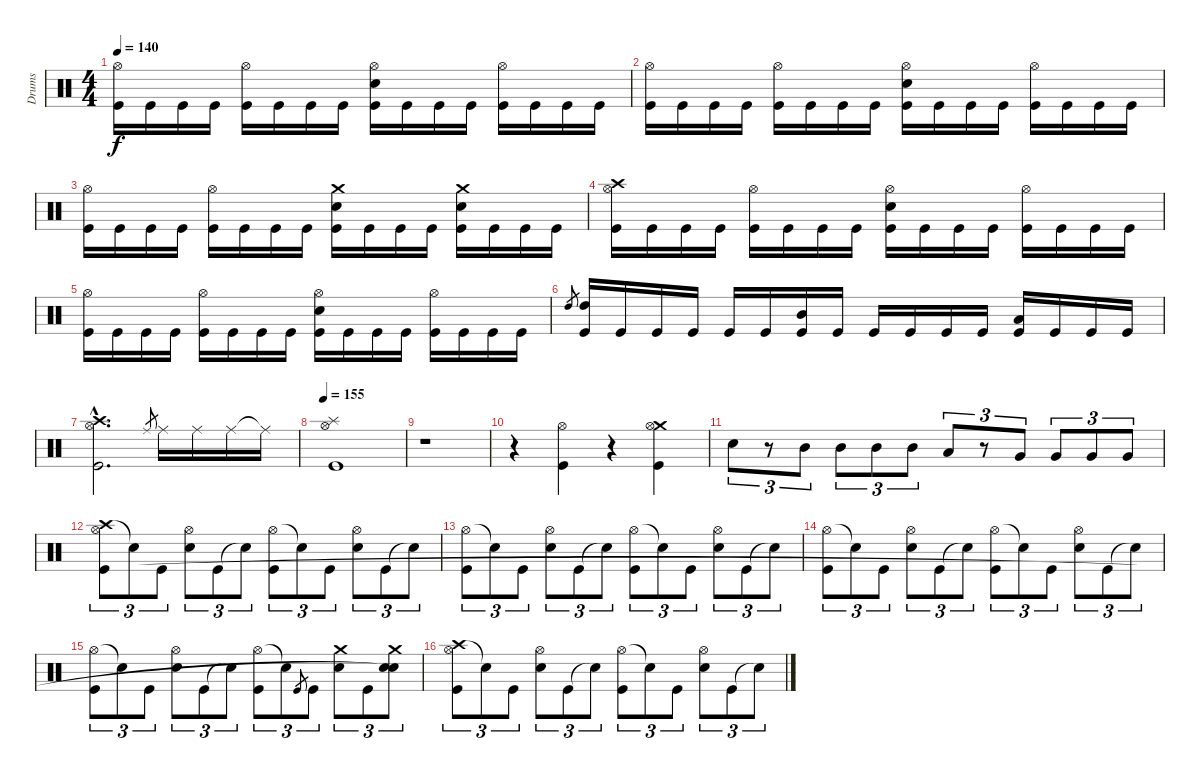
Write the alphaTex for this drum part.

\track ("Drums" "Drums") {instrument percussion}
\staff {score}
\articulation defaults
\ts (4 4)
\tempo 140
\clef neutral
\ks c
("Hi-Hat (open)" "Kick (hit)").16{dy f} "Kick (hit)".16 "Kick (hit)".16 "Kick (hit)".16 ("Hi-Hat (open)" "Kick (hit)").16 "Kick (hit)".16 "Kick (hit)".16 "Kick (hit)".16 ("Hi-Hat (open)" "Electric Snare (hit)" "Kick (hit)").16 "Kick (hit)".16 "Kick (hit)".16 "Kick (hit)".16 ("Hi-Hat (open)" "Kick (hit)").16 "Kick (hit)".16 "Kick (hit)".16 "Kick (hit)".16 |
("Hi-Hat (open)" "Kick (hit)").16 "Kick (hit)".16 "Kick (hit)".16 "Kick (hit)".16 ("Hi-Hat (open)" "Kick (hit)").16 "Kick (hit)".16 "Kick (hit)".16 "Kick (hit)".16 ("Hi-Hat (open)" "Electric Snare (hit)" "Kick (hit)").16 "Kick (hit)".16 "Kick (hit)".16 "Kick (hit)".16 ("Hi-Hat (open)" "Kick (hit)").16 "Kick (hit)".16 "Kick (hit)".16 "Kick (hit)".16 |
("Hi-Hat (open)" "Kick (hit)").16 "Kick (hit)".16 "Kick (hit)".16 "Kick (hit)".16 ("Hi-Hat (open)" "Kick (hit)").16 "Kick (hit)".16 "Kick (hit)".16 "Kick (hit)".16 ("Crash medium (hit)" "Electric Snare (hit)" "Kick (hit)").16 "Kick (hit)".16 "Kick (hit)".16 "Kick (hit)".16 ("Crash medium (hit)" "Electric Snare (hit)" "Kick (hit)").16 "Kick (hit)".16 "Kick (hit)".16 "Kick (hit)".16 |
("Crash high (hit)" "Hi-Hat (open)" "Kick (hit)").16 "Kick (hit)".16 "Kick (hit)".16 "Kick (hit)".16 ("Hi-Hat (open)" "Kick (hit)").16 "Kick (hit)".16 "Kick (hit)".16 "Kick (hit)".16 ("Hi-Hat (open)" "Electric Snare (hit)" "Kick (hit)").16 "Kick (hit)".16 "Kick (hit)".16 "Kick (hit)".16 ("Hi-Hat (open)" "Kick (hit)").16 "Kick (hit)".16 "Kick (hit)".16 "Kick (hit)".16 |
("Hi-Hat (open)" "Kick (hit)").16 "Kick (hit)".16 "Kick (hit)".16 "Kick (hit)".16 ("Hi-Hat (open)" "Kick (hit)").16 "Kick (hit)".16 "Kick (hit)".16 "Kick (hit)".16 ("Hi-Hat (open)" "Electric Snare (hit)" "Kick (hit)").16 "Kick (hit)".16 "Kick (hit)".16 "Kick (hit)".16 ("Hi-Hat (open)" "Kick (hit)").16 "Kick (hit)".16 "Kick (hit)".16 "Kick (hit)".16 |
"High Tom (hit)".8{gr} ("High Tom (hit)" "Kick (hit)").16 "Kick (hit)".16 "Kick (hit)".16 "Kick (hit)".16 "Kick (hit)".16 "Kick (hit)".16 ("Mid Tom (hit)" "Kick (hit)").16 "Kick (hit)".16 "Kick (hit)".16 "Kick (hit)".16 "Kick (hit)".16 "Kick (hit)".16 ("Low Tom (hit)" "Kick (hit)").16 "Kick (hit)".16 "Kick (hit)".16 "Kick (hit)".16 |
("Crash high (hit)"{hac} "Hi-Hat (open)"{hac} "Kick (hit)"{hac}).2{d} "Ride (middle)".8{gr} "Ride (middle)".16 "Ride (middle)".16 "Ride (middle)".16 "Ride (middle)"{t}.16 |
\tempo 155
("Splash (hit)" "Hi-Hat (open)" "Kick (hit)").1 |
r.1 |
r.4 ("Hi-Hat (open)" "Kick (hit)").4 r.4 ("Crash medium (hit)" "Hi-Hat (open)" "Kick (hit)").4 |
"Electric Snare (hit)".8{tu (3 2)} r.8{tu (3 2)} "Mid Tom (hit)".8{tu (3 2)} "Mid Tom (hit)".8{tu (3 2)} "Mid Tom (hit)".8{tu (3 2)} "Mid Tom (hit)".8{tu (3 2)} "Low Tom (hit)".8{tu (3 2)} r.8{tu (3 2)} "Very Low Tom (hit)".8{tu (3 2)} "Very Low Tom (hit)".8{tu (3 2)} "Very Low Tom (hit)".8{tu (3 2)} "Very Low Tom (hit)".8{tu (3 2)} |
("Crash high (hit)" "Hi-Hat (open)" "Kick (hit)").8{tu (3 2)} "Snare (hit)"{t}.8{tu (3 2)} "Kick (hit)".8{tu (3 2)} ("Hi-Hat (open)" "Electric Snare (hit)").8{tu (3 2)} "Kick (hit)".8{tu (3 2)} "Snare (hit)"{t}.8{tu (3 2)} ("Hi-Hat (open)" "Kick (hit)").8{tu (3 2)} "Snare (hit)"{t}.8{tu (3 2)} "Kick (hit)".8{tu (3 2)} ("Hi-Hat (open)" "Electric Snare (hit)").8{tu (3 2)} "Kick (hit)".8{tu (3 2)} "Snare (hit)"{t}.8{tu (3 2)} |
("Hi-Hat (open)" "Kick (hit)").8{tu (3 2)} "Snare (hit)"{t}.8{tu (3 2)} "Kick (hit)".8{tu (3 2)} ("Hi-Hat (open)" "Electric Snare (hit)").8{tu (3 2)} "Kick (hit)".8{tu (3 2)} "Snare (hit)"{t}.8{tu (3 2)} ("Hi-Hat (open)" "Kick (hit)").8{tu (3 2)} "Snare (hit)"{t}.8{tu (3 2)} "Kick (hit)".8{tu (3 2)} ("Hi-Hat (open)" "Electric Snare (hit)").8{tu (3 2)} "Kick (hit)".8{tu (3 2)} "Snare (hit)"{t}.8{tu (3 2)} |
("Hi-Hat (open)" "Kick (hit)").8{tu (3 2)} "Snare (hit)"{t}.8{tu (3 2)} "Kick (hit)".8{tu (3 2)} ("Hi-Hat (open)" "Electric Snare (hit)").8{tu (3 2)} "Kick (hit)".8{tu (3 2)} "Snare (hit)"{t}.8{tu (3 2)} ("Hi-Hat (open)" "Kick (hit)").8{tu (3 2)} "Snare (hit)"{t}.8{tu (3 2)} "Kick (hit)".8{tu (3 2)} ("Hi-Hat (open)" "Electric Snare (hit)").8{tu (3 2)} "Kick (hit)".8{tu (3 2)} "Snare (hit)"{t}.8{tu (3 2)} |
("Hi-Hat (open)" "Kick (hit)").8{tu (3 2)} "Snare (hit)"{t}.8{tu (3 2)} "Kick (hit)".8{tu (3 2)} ("Hi-Hat (open)" "Electric Snare (hit)").8{tu (3 2)} "Kick (hit)".8{tu (3 2)} "Snare (hit)"{t}.8{tu (3 2)} ("Hi-Hat (open)" "Kick (hit)").8{tu (3 2)} "Snare (hit)"{t}.8{tu (3 2)} "Kick (hit)".8{gr} "Kick (hit)".8{tu (3 2)} ("Crash medium (hit)" "Electric Snare (hit)").8{tu (3 2)} "Kick (hit)".8{tu (3 2)} ("Crash medium (hit)" "Electric Snare (hit)" "Snare (hit)"{t}).8{tu (3 2)} |
("Crash high (hit)" "Hi-Hat (open)" "Kick (hit)").8{tu (3 2)} "Snare (hit)"{t}.8{tu (3 2)} "Kick (hit)".8{tu (3 2)} ("Hi-Hat (open)" "Electric Snare (hit)").8{tu (3 2)} "Kick (hit)".8{tu (3 2)} "Snare (hit)"{t}.8{tu (3 2)} ("Hi-Hat (open)" "Kick (hit)").8{tu (3 2)} "Snare (hit)"{t}.8{tu (3 2)} "Kick (hit)".8{tu (3 2)} ("Hi-Hat (open)" "Electric Snare (hit)").8{tu (3 2)} "Kick (hit)".8{tu (3 2)} "Snare (hit)"{t}.8{tu (3 2)}
